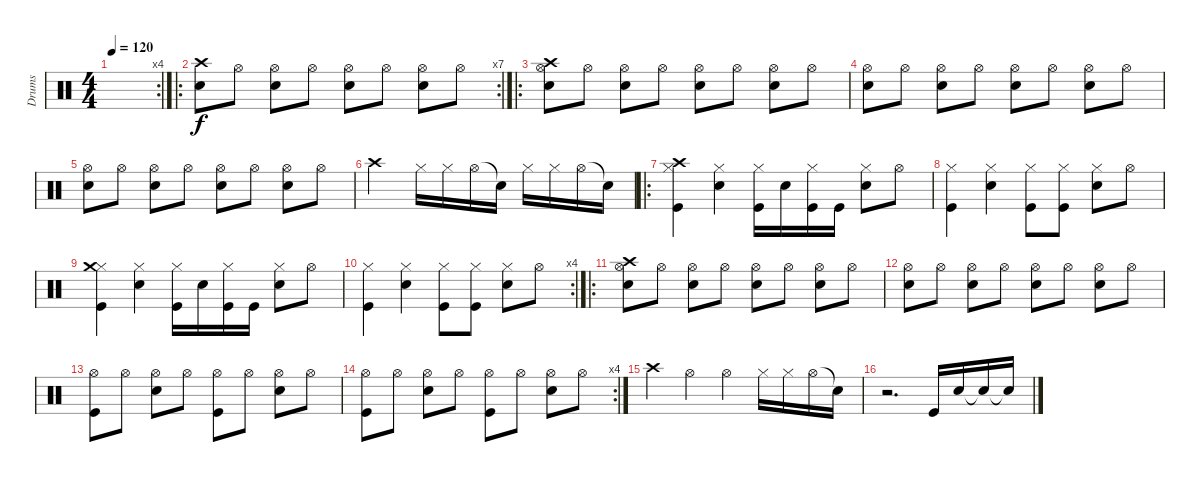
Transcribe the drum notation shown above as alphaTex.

\track ("Drums" "Drums") {instrument percussion}
\staff {score}
\articulation defaults
\rc 4
\ts (4 4)
\tempo 120
\clef neutral
\ks c
|
\ro
\rc 7
("Crash high (hit)" "Snare (hit) 2").8 "Hi-Hat (open)".8 ("Hi-Hat (open)" "Snare (hit) 2").8 "Hi-Hat (open)".8 ("Hi-Hat (open)" "Snare (hit) 2").8 "Hi-Hat (open)".8 ("Hi-Hat (open)" "Snare (hit) 2").8 "Hi-Hat (open)".8 |
\ro
("Hi-Hat (open)" "Crash high (hit)" "Snare (hit) 2").8 "Hi-Hat (open)".8 ("Hi-Hat (open)" "Snare (hit) 2").8 "Hi-Hat (open)".8 ("Hi-Hat (open)" "Snare (hit) 2").8 "Hi-Hat (open)".8 ("Hi-Hat (open)" "Snare (hit) 2").8 "Hi-Hat (open)".8 |
("Hi-Hat (open)" "Snare (hit) 2").8 "Hi-Hat (open)".8 ("Hi-Hat (open)" "Snare (hit) 2").8 "Hi-Hat (open)".8 ("Hi-Hat (open)" "Snare (hit) 2").8 "Hi-Hat (open)".8 ("Hi-Hat (open)" "Snare (hit) 2").8 "Hi-Hat (open)".8 |
("Hi-Hat (open)" "Snare (hit) 2").8 "Hi-Hat (open)".8 ("Hi-Hat (open)" "Snare (hit) 2").8 "Hi-Hat (open)".8 ("Hi-Hat (open)" "Snare (hit) 2").8 "Hi-Hat (open)".8 ("Hi-Hat (open)" "Snare (hit) 2").8 "Hi-Hat (open)".8 |
"Crash high (hit)".2 "Hi-Hat (closed)".16 "Hi-Hat (closed)".16 "Hi-Hat (open)".16 "Snare (hit)"{t}.16 "Hi-Hat (closed)".16 "Hi-Hat (closed)".16 "Hi-Hat (open)".16 "Snare (hit)"{t}.16 |
\ro
("Hi-Hat (closed)" "Crash high (hit)" "Kick (hit)").4 ("Hi-Hat (closed)" "Snare (hit) 2").4 ("Hi-Hat (closed)" "Kick (hit)").16 "Snare (hit) 2".16 ("Hi-Hat (closed)" "Kick (hit)").16 "Kick (hit)".16 ("Hi-Hat (closed)" "Snare (hit) 2").8 "Hi-Hat (open)".8 |
("Hi-Hat (closed)" "Kick (hit)").4 ("Hi-Hat (closed)" "Snare (hit) 2").4 ("Hi-Hat (closed)" "Kick (hit)").8 ("Hi-Hat (closed)" "Kick (hit)").8 ("Hi-Hat (closed)" "Snare (hit) 2").8 "Hi-Hat (open)".8 |
("Hi-Hat (closed)" "Crash medium (hit)" "Kick (hit)").4 ("Hi-Hat (closed)" "Snare (hit) 2").4 ("Hi-Hat (closed)" "Kick (hit)").16 "Snare (hit) 2".16 ("Hi-Hat (closed)" "Kick (hit)").16 "Kick (hit)".16 ("Hi-Hat (closed)" "Snare (hit) 2").8 "Hi-Hat (open)".8 |
\rc 4
("Hi-Hat (closed)" "Kick (hit)").4 ("Hi-Hat (closed)" "Snare (hit) 2").4 ("Hi-Hat (closed)" "Kick (hit)").8 ("Hi-Hat (closed)" "Kick (hit)").8 ("Hi-Hat (closed)" "Snare (hit) 2").8 "Hi-Hat (open)".8 |
\ro
("Hi-Hat (open)" "Crash high (hit)" "Snare (hit) 2").8 "Hi-Hat (open)".8 ("Hi-Hat (open)" "Snare (hit) 2").8 "Hi-Hat (open)".8 ("Hi-Hat (open)" "Snare (hit) 2").8 "Hi-Hat (open)".8 ("Hi-Hat (open)" "Snare (hit) 2").8 "Hi-Hat (open)".8 |
("Hi-Hat (open)" "Snare (hit) 2").8 "Hi-Hat (open)".8 ("Hi-Hat (open)" "Snare (hit) 2").8 "Hi-Hat (open)".8 ("Hi-Hat (open)" "Snare (hit) 2").8 "Hi-Hat (open)".8 ("Hi-Hat (open)" "Snare (hit) 2").8 "Hi-Hat (open)".8 |
("Hi-Hat (open)" "Kick (hit)").8 "Hi-Hat (open)".8 ("Hi-Hat (open)" "Snare (hit) 2").8 "Hi-Hat (open)".8 ("Hi-Hat (open)" "Kick (hit)").8 "Hi-Hat (open)".8 ("Hi-Hat (open)" "Snare (hit) 2").8 "Hi-Hat (open)".8 |
\rc 4
("Hi-Hat (open)" "Kick (hit)").8 "Hi-Hat (open)".8 ("Hi-Hat (open)" "Snare (hit) 2").8 "Hi-Hat (open)".8 ("Hi-Hat (open)" "Kick (hit)").8 "Hi-Hat (open)".8 ("Hi-Hat (open)" "Snare (hit) 2").8 "Hi-Hat (open)".8 |
"Crash high (hit)".4 "Hi-Hat (open)".4 "Hi-Hat (open)".4 "Hi-Hat (closed)".16 "Hi-Hat (closed)".16 "Hi-Hat (open)".16 "Snare (hit)"{t}.16 |
r.2{d} "Kick (hit)".16 "Snare (hit) 2".16 "Snare (hit) 2"{t}.16 "Snare (hit)"{t}.16
